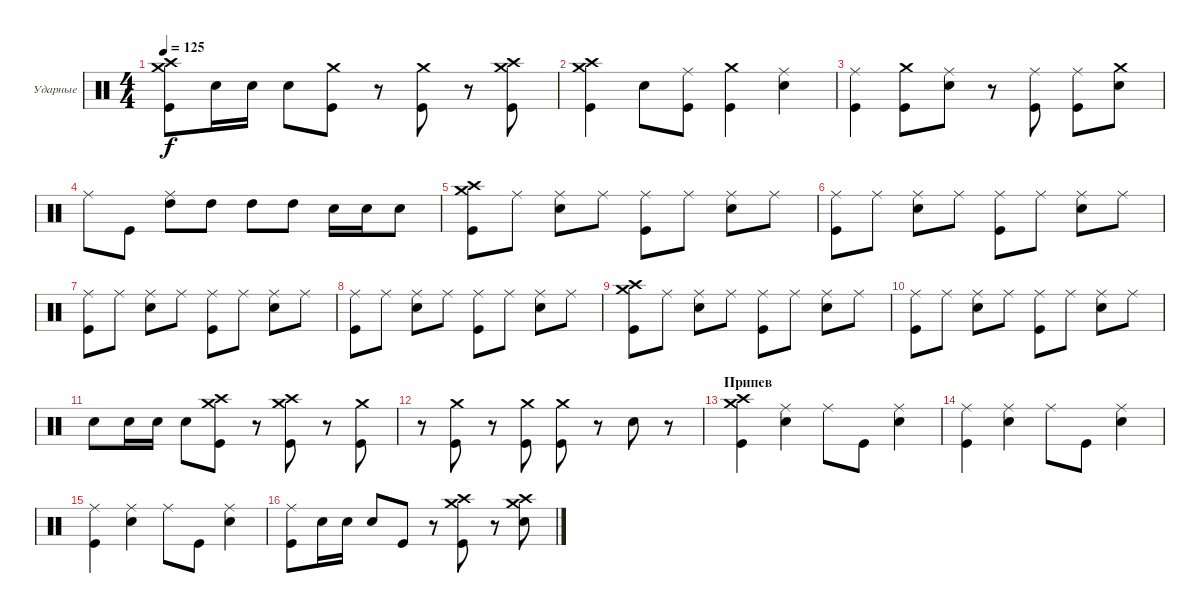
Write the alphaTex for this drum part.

\bracketExtendMode groupsimilarinstruments
\firstSystemTrackNameOrientation horizontal
\otherSystemsTrackNameOrientation horizontal
\track ("Максим Удалов" "Ударные") {instrument percussion}
\staff {score}
\articulation defaults
\ts (4 4)
\tempo 125
\clef neutral
\ks c
("Kick (hit)" "Crash medium (hit)" "Crash high (hit)").8{dy f} "Snare (hit) 2".16 "Snare (hit) 2".16 "Snare (hit) 2".8 ("Kick (hit)" "Crash medium (hit)").8 r.8 ("Kick (hit)" "Crash medium (hit)").8 r.8 ("Kick (hit)" "Crash high (hit)" "Crash medium (hit)").8 |
("Kick (hit)" "Crash medium (hit)" "Crash high (hit)").4 "Snare (hit) 2".8 ("Kick (hit)" "Ride (middle)").8 ("Kick (hit)" "Crash medium (hit)").4 ("Snare (hit) 2" "Ride (middle)").4 |
("Kick (hit)" "Ride (middle)").4 ("Kick (hit)" "Crash medium (hit)").8 ("Snare (hit) 2" "Ride (middle)").8 r.8 ("Kick (hit)" "Ride (middle)").8 ("Kick (hit)" "Ride (middle)").8 ("Snare (hit) 2" "Crash medium (hit)").8 |
"Ride (middle)".8 "Kick (hit)".8 ("High Tom (hit)" "Ride (middle)").8 "High Tom (hit)".8 "High Tom (hit)".8 "High Tom (hit)".8 "Snare (hit) 2".16 "Snare (hit) 2".16 "Snare (hit) 2".8 |
("Kick (hit)" "Crash medium (hit)" "Crash high (hit)").8 "Ride (middle)".8 ("Snare (hit) 2" "Ride (middle)").8 "Ride (middle)".8 ("Kick (hit)" "Ride (middle)").8 "Ride (middle)".8 ("Snare (hit) 2" "Ride (middle)").8 "Ride (middle)".8 |
("Kick (hit)" "Ride (middle)").8 "Ride (middle)".8 ("Snare (hit) 2" "Ride (middle)").8 "Ride (middle)".8 ("Kick (hit)" "Ride (middle)").8 "Ride (middle)".8 ("Snare (hit) 2" "Ride (middle)").8 "Ride (middle)".8 |
("Kick (hit)" "Ride (middle)").8 "Ride (middle)".8 ("Snare (hit) 2" "Ride (middle)").8 "Ride (middle)".8 ("Kick (hit)" "Ride (middle)").8 "Ride (middle)".8 ("Snare (hit) 2" "Ride (middle)").8 "Ride (middle)".8 |
("Kick (hit)" "Ride (middle)").8 "Ride (middle)".8 ("Snare (hit) 2" "Ride (middle)").8 "Ride (middle)".8 ("Kick (hit)" "Ride (middle)").8 "Ride (middle)".8 ("Snare (hit) 2" "Ride (middle)").8 "Ride (middle)".8 |
("Kick (hit)" "Crash medium (hit)" "Crash high (hit)").8 "Ride (middle)".8 ("Snare (hit) 2" "Ride (middle)").8 "Ride (middle)".8 ("Kick (hit)" "Ride (middle)").8 "Ride (middle)".8 ("Snare (hit) 2" "Ride (middle)").8 "Ride (middle)".8 |
("Kick (hit)" "Ride (middle)").8 "Ride (middle)".8 ("Snare (hit) 2" "Ride (middle)").8 "Ride (middle)".8 ("Kick (hit)" "Ride (middle)").8 "Ride (middle)".8 ("Snare (hit) 2" "Ride (middle)").8 "Ride (middle)".8 |
"Snare (hit) 2".8 "Snare (hit) 2".16 "Snare (hit) 2".16 "Snare (hit) 2".8 ("Kick (hit)" "Crash medium (hit)" "Crash high (hit)").8 r.8 ("Kick (hit)" "Crash high (hit)" "Crash medium (hit)").8 r.8 ("Kick (hit)" "Crash medium (hit)").8 |
r.8 ("Kick (hit)" "Crash medium (hit)").8 r.8 ("Kick (hit)" "Crash medium (hit)").8 ("Kick (hit)" "Crash medium (hit)").8 r.8 "Snare (hit) 2".8 r.8 |
\section ("" "Припев")
("Kick (hit)" "Crash medium (hit)" "Crash high (hit)").4 ("Snare (hit) 2" "Ride (middle)").4 "Ride (middle)".8 "Kick (hit)".8 ("Snare (hit) 2" "Ride (middle)").4 |
("Kick (hit)" "Ride (middle)").4 ("Snare (hit) 2" "Ride (middle)").4 "Ride (middle)".8 "Kick (hit)".8 ("Snare (hit) 2" "Ride (middle)").4 |
("Kick (hit)" "Ride (middle)").4 ("Snare (hit) 2" "Ride (middle)").4 "Ride (middle)".8 "Kick (hit)".8 ("Snare (hit) 2" "Ride (middle)").4 |
("Kick (hit)" "Ride (middle)").8 "Snare (hit) 2".16 "Snare (hit) 2".16 "Snare (hit) 2".8 "Kick (hit)".8 r.8 ("Kick (hit)" "Crash medium (hit)" "Crash high (hit)").8 r.8 ("Snare (hit) 2" "Crash medium (hit)" "Crash high (hit)").8
